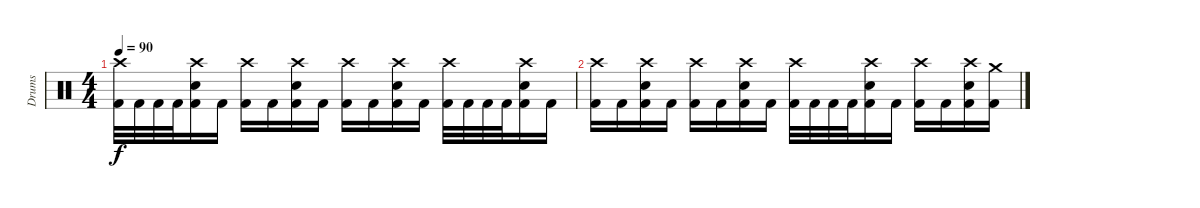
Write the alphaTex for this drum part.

\track ("Drums" "Drums") {instrument percussion}
\staff {score}
\articulation defaults
\ts (4 4)
\tempo 90
\clef neutral
\ks c
("Crash high (hit)" "Kick (hit) 2").32{dy f} "Kick (hit) 2".32 "Kick (hit) 2".32 "Kick (hit) 2".32 ("Crash high (hit)" "Snare (hit) 2" "Kick (hit) 2").16 "Kick (hit) 2".16 ("Crash high (hit)" "Kick (hit) 2").16 "Kick (hit) 2".16 ("Crash high (hit)" "Snare (hit) 2" "Kick (hit) 2").16 "Kick (hit) 2".16 ("Crash high (hit)" "Kick (hit) 2").16 "Kick (hit) 2".16 ("Crash high (hit)" "Snare (hit) 2" "Kick (hit) 2").16 "Kick (hit) 2".16 ("Crash high (hit)" "Kick (hit) 2").32 "Kick (hit) 2".32 "Kick (hit) 2".32 "Kick (hit) 2".32 ("Crash high (hit)" "Snare (hit) 2" "Kick (hit) 2").16 "Kick (hit) 2".16 |
("Crash high (hit)" "Kick (hit) 2").16 "Kick (hit) 2".16 ("Crash high (hit)" "Snare (hit) 2" "Kick (hit) 2").16 "Kick (hit) 2".16 ("Crash high (hit)" "Kick (hit) 2").16 "Kick (hit) 2".16 ("Crash high (hit)" "Snare (hit) 2" "Kick (hit) 2").16 "Kick (hit) 2".16 ("Crash high (hit)" "Kick (hit) 2").32 "Kick (hit) 2".32 "Kick (hit) 2".32 "Kick (hit) 2".32 ("Crash high (hit)" "Snare (hit) 2" "Kick (hit) 2").16 "Kick (hit) 2".16 ("Crash high (hit)" "Kick (hit) 2").16 "Kick (hit) 2".16 ("Crash high (hit)" "Snare (hit) 2" "Kick (hit) 2").16 ("Crash medium (hit)" "Kick (hit) 2").16
